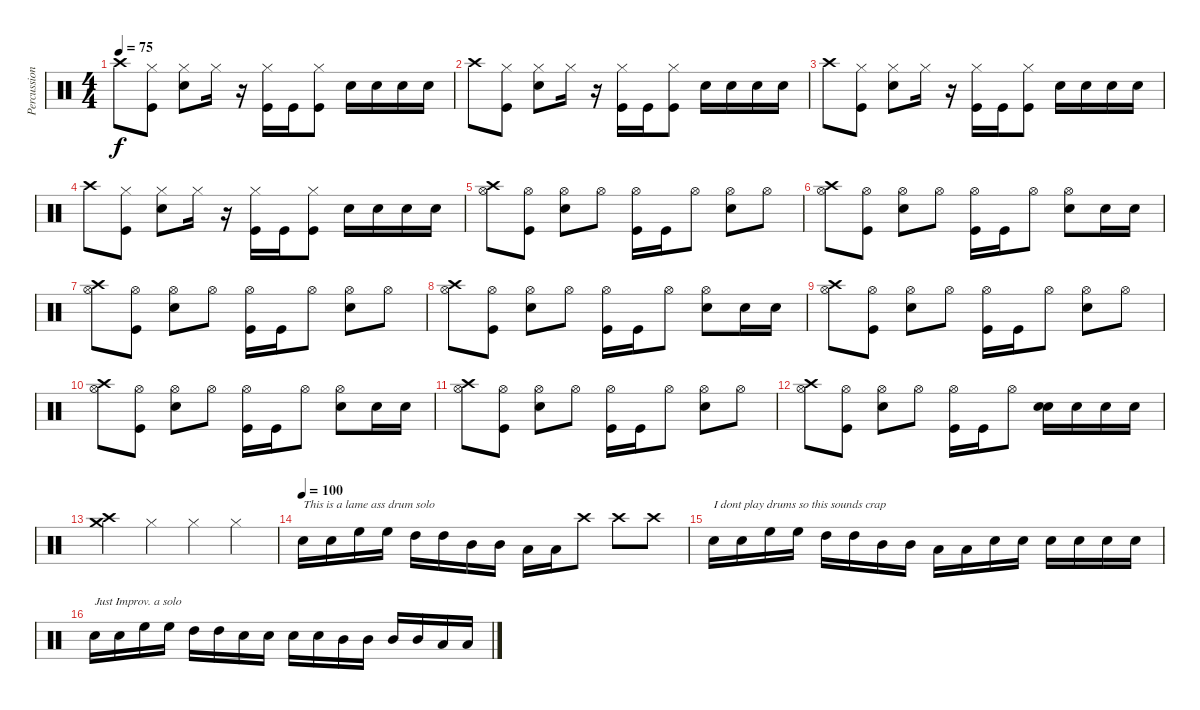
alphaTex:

\track ("Percussion" "Percussion") {instrument percussion}
\staff {score}
\articulation defaults
\ts (4 4)
\tempo 75
\clef neutral
\ks c "Crash high (hit)".8{dy f}
("Hi-Hat (closed)" "Kick (hit)").8 ("Hi-Hat (closed)" "Snare (hit) 2").8 "Hi-Hat (closed)".16 r.16 ("Hi-Hat (closed)" "Kick (hit)").16 "Kick (hit)".16 ("Hi-Hat (closed)" "Kick (hit)").8 "Snare (hit) 2".16 "Snare (hit) 2".16 "Snare (hit) 2".16 "Snare (hit) 2".16 |
"Crash high (hit)".8 ("Hi-Hat (closed)" "Kick (hit)").8 ("Hi-Hat (closed)" "Snare (hit) 2").8 "Hi-Hat (closed)".16 r.16 ("Hi-Hat (closed)" "Kick (hit)").16 "Kick (hit)".16 ("Hi-Hat (closed)" "Kick (hit)").8 "Snare (hit) 2".16 "Snare (hit) 2".16 "Snare (hit) 2".16 "Snare (hit) 2".16 |
"Crash high (hit)".8 ("Hi-Hat (closed)" "Kick (hit)").8 ("Hi-Hat (closed)" "Snare (hit) 2").8 "Hi-Hat (closed)".16 r.16 ("Hi-Hat (closed)" "Kick (hit)").16 "Kick (hit)".16 ("Hi-Hat (closed)" "Kick (hit)").8 "Snare (hit) 2".16 "Snare (hit) 2".16 "Snare (hit) 2".16 "Snare (hit) 2".16 |
"Crash high (hit)".8 ("Hi-Hat (closed)" "Kick (hit)").8 ("Hi-Hat (closed)" "Snare (hit) 2").8 "Hi-Hat (closed)".16 r.16 ("Hi-Hat (closed)" "Kick (hit)").16 "Kick (hit)".16 ("Hi-Hat (closed)" "Kick (hit)").8 "Snare (hit) 2".16 "Snare (hit) 2".16 "Snare (hit) 2".16 "Snare (hit) 2".16 |
("Crash high (hit)" "Hi-Hat (open)").8 ("Kick (hit)" "Hi-Hat (open)").8 ("Snare (hit) 2" "Hi-Hat (open)").8 "Hi-Hat (open)".8 ("Kick (hit)" "Hi-Hat (open)").16 "Kick (hit)".16 "Hi-Hat (open)".8 ("Snare (hit) 2" "Hi-Hat (open)").8 "Hi-Hat (open)".8 |
("Crash high (hit)" "Hi-Hat (open)").8 ("Kick (hit)" "Hi-Hat (open)").8 ("Snare (hit) 2" "Hi-Hat (open)").8 "Hi-Hat (open)".8 ("Kick (hit)" "Hi-Hat (open)").16 "Kick (hit)".16 "Hi-Hat (open)".8 ("Snare (hit) 2" "Hi-Hat (open)").8 "Snare (hit) 2".16 "Snare (hit) 2".16 |
("Crash high (hit)" "Hi-Hat (open)").8 ("Kick (hit)" "Hi-Hat (open)").8 ("Snare (hit) 2" "Hi-Hat (open)").8 "Hi-Hat (open)".8 ("Kick (hit)" "Hi-Hat (open)").16 "Kick (hit)".16 "Hi-Hat (open)".8 ("Snare (hit) 2" "Hi-Hat (open)").8 "Hi-Hat (open)".8 |
("Crash high (hit)" "Hi-Hat (open)").8 ("Kick (hit)" "Hi-Hat (open)").8 ("Snare (hit) 2" "Hi-Hat (open)").8 "Hi-Hat (open)".8 ("Kick (hit)" "Hi-Hat (open)").16 "Kick (hit)".16 "Hi-Hat (open)".8 ("Snare (hit) 2" "Hi-Hat (open)").8 "Snare (hit) 2".16 "Snare (hit) 2".16 |
("Crash high (hit)" "Hi-Hat (open)").8 ("Kick (hit)" "Hi-Hat (open)").8 ("Snare (hit) 2" "Hi-Hat (open)").8 "Hi-Hat (open)".8 ("Kick (hit)" "Hi-Hat (open)").16 "Kick (hit)".16 "Hi-Hat (open)".8 ("Snare (hit) 2" "Hi-Hat (open)").8 "Hi-Hat (open)".8 |
("Crash high (hit)" "Hi-Hat (open)").8 ("Kick (hit)" "Hi-Hat (open)").8 ("Snare (hit) 2" "Hi-Hat (open)").8 "Hi-Hat (open)".8 ("Kick (hit)" "Hi-Hat (open)").16 "Kick (hit)".16 "Hi-Hat (open)".8 ("Snare (hit) 2" "Hi-Hat (open)").8 "Snare (hit) 2".16 "Snare (hit) 2".16 |
("Crash high (hit)" "Hi-Hat (open)").8 ("Kick (hit)" "Hi-Hat (open)").8 ("Snare (hit) 2" "Hi-Hat (open)").8 "Hi-Hat (open)".8 ("Kick (hit)" "Hi-Hat (open)").16 "Kick (hit)".16 "Hi-Hat (open)".8 ("Snare (hit) 2" "Hi-Hat (open)").8 "Hi-Hat (open)".8 |
("Crash high (hit)" "Hi-Hat (open)").8 ("Kick (hit)" "Hi-Hat (open)").8 ("Snare (hit) 2" "Hi-Hat (open)").8 "Hi-Hat (open)".8 ("Kick (hit)" "Hi-Hat (open)").16 "Kick (hit)".16 "Hi-Hat (open)".8 ("Snare (hit) 2" "Snare (hit) 2").16 "Snare (hit) 2".16 "Snare (hit) 2".16 "Snare (hit) 2".16 |
("Crash high (hit)" "Crash medium (hit)").4 "Hi-Hat (closed)".4 "Hi-Hat (closed)".4 "Hi-Hat (closed)".4 |
\tempo (100)
"Snare (hit) 2".16{txt "This is a lame ass drum solo"} "Snare (hit) 2".16 "High Floor Tom (hit)".16 "High Floor Tom (hit)".16 "High Tom (hit)".16 "High Tom (hit)".16 "Mid Tom (hit)".16 "Mid Tom (hit)".16 "Low Tom (hit)".16 "Low Tom (hit)".16 "Crash high (hit)".8 "Crash high (hit)".8 "Crash high (hit)".8 |
"Snare (hit) 2".16{txt "I dont play drums so this sounds crap"} "Snare (hit) 2".16 "High Floor Tom (hit)".16 "High Floor Tom (hit)".16 "High Tom (hit)".16 "High Tom (hit)".16 "Mid Tom (hit)".16 "Mid Tom (hit)".16 "Low Tom (hit)".16 "Low Tom (hit)".16 "Snare (hit) 2".16 "Snare (hit) 2".16 "Snare (hit) 2".16 "Snare (hit) 2".16 "Snare (hit) 2".16 "Snare (hit) 2".16 |
"Snare (hit) 2".16{txt "Just Improv. a solo"} "Snare (hit) 2".16 "High Floor Tom (hit)".16 "High Floor Tom (hit)".16 "High Tom (hit)".16 "High Tom (hit)".16 "Snare (hit) 2".16 "Snare (hit) 2".16 "Snare (hit) 2".16 "Snare (hit) 2".16 "Mid Tom (hit)".16 "Mid Tom (hit)".16 "Mid Tom (hit)".16 "Mid Tom (hit)".16 "Low Tom (hit)".16 "Low Tom (hit)".16
